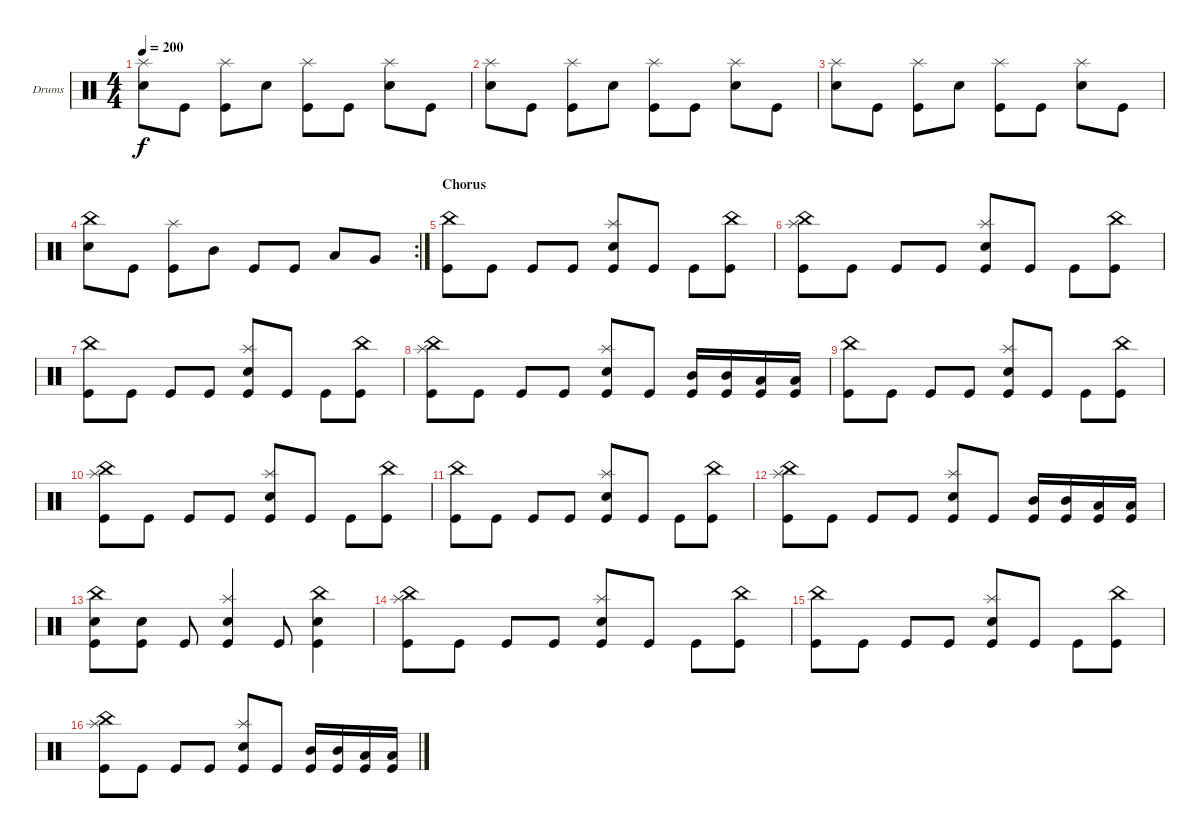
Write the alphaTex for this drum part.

\defaultSystemsLayout 4
\bracketExtendMode groupsimilarinstruments
\firstSystemTrackNameOrientation horizontal
\otherSystemsTrackNameOrientation horizontal
\track ("Drumkit" "Drums") {instrument percussion}
\staff {score}
\articulation defaults
\ts (4 4)
\tempo 200
\clef neutral
\ks c
("Snare (hit) 2" "Splash (hit)").8{dy f} "Kick (hit)".8 ("Kick (hit)" "Splash (hit)").8 "Snare (hit) 2".8 ("Kick (hit)" "Splash (hit)").8 "Kick (hit)".8 ("Snare (hit) 2" "Splash (hit)").8 "Kick (hit)".8 |
("Snare (hit) 2" "Splash (hit)").8 "Kick (hit)".8 ("Kick (hit)" "Splash (hit)").8 "Snare (hit) 2".8 ("Kick (hit)" "Splash (hit)").8 "Kick (hit)".8 ("Snare (hit) 2" "Splash (hit)").8 "Kick (hit)".8 |
("Snare (hit) 2" "Splash (hit)").8 "Kick (hit)".8 ("Kick (hit)" "Splash (hit)").8 "Snare (hit) 2".8 ("Kick (hit)" "Splash (hit)").8 "Kick (hit)".8 ("Snare (hit) 2" "Splash (hit)").8 "Kick (hit)".8 |
\rc 2
("Snare (hit) 2" "China (hit)").8 "Kick (hit)".8 ("Splash (hit)" "Kick (hit)").8 "Mid Tom (hit)".8 "Kick (hit)".8 "Kick (hit)".8 "Low Tom (hit)".8 "Very Low Tom (hit)".8 |
\section ("" "Chorus")
("Kick (hit)" "China (hit)").8 "Kick (hit)".8 "Kick (hit)".8 "Kick (hit)".8 ("Kick (hit)" "Splash (hit)" "Snare (hit) 2").8 "Kick (hit)".8 "Kick (hit)".8 ("Kick (hit)" "China (hit)").8 |
("Kick (hit)" "Splash (hit)" "China (hit)").8 "Kick (hit)".8 "Kick (hit)".8 "Kick (hit)".8 ("Kick (hit)" "Splash (hit)" "Snare (hit) 2").8 "Kick (hit)".8 "Kick (hit)".8 ("Kick (hit)" "China (hit)").8 |
("Kick (hit)" "China (hit)").8 "Kick (hit)".8 "Kick (hit)".8 "Kick (hit)".8 ("Kick (hit)" "Splash (hit)" "Snare (hit) 2").8 "Kick (hit)".8 "Kick (hit)".8 ("Kick (hit)" "China (hit)").8 |
("Kick (hit)" "Splash (hit)" "China (hit)").8 "Kick (hit)".8 "Kick (hit)".8 "Kick (hit)".8 ("Kick (hit)" "Splash (hit)" "Snare (hit) 2").8 "Kick (hit)".8 ("Kick (hit)" "Mid Tom (hit)").16 ("Kick (hit)" "Mid Tom (hit)").16 ("Low Tom (hit)" "Kick (hit)").16 ("Low Tom (hit)" "Kick (hit)").16 |
("Kick (hit)" "China (hit)").8 "Kick (hit)".8 "Kick (hit)".8 "Kick (hit)".8 ("Kick (hit)" "Splash (hit)" "Snare (hit) 2").8 "Kick (hit)".8 "Kick (hit)".8 ("Kick (hit)" "China (hit)").8 |
("Kick (hit)" "Splash (hit)" "China (hit)").8 "Kick (hit)".8 "Kick (hit)".8 "Kick (hit)".8 ("Kick (hit)" "Splash (hit)" "Snare (hit) 2").8 "Kick (hit)".8 "Kick (hit)".8 ("Kick (hit)" "China (hit)").8 |
("Kick (hit)" "China (hit)").8 "Kick (hit)".8 "Kick (hit)".8 "Kick (hit)".8 ("Kick (hit)" "Splash (hit)" "Snare (hit) 2").8 "Kick (hit)".8 "Kick (hit)".8 ("Kick (hit)" "China (hit)").8 |
("Kick (hit)" "Splash (hit)" "China (hit)").8 "Kick (hit)".8 "Kick (hit)".8 "Kick (hit)".8 ("Kick (hit)" "Splash (hit)" "Snare (hit) 2").8 "Kick (hit)".8 ("Kick (hit)" "Mid Tom (hit)").16 ("Kick (hit)" "Mid Tom (hit)").16 ("Low Tom (hit)" "Kick (hit)").16 ("Low Tom (hit)" "Kick (hit)").16 |
("Kick (hit)" "China (hit)" "Snare (hit) 2").8 ("Kick (hit)" "Snare (hit) 2").8 "Kick (hit)".8 ("Kick (hit)" "Splash (hit)" "Snare (hit) 2").4 "Kick (hit)".8 ("Kick (hit)" "China (hit)" "Snare (hit) 2").4 |
("Kick (hit)" "Splash (hit)" "China (hit)").8 "Kick (hit)".8 "Kick (hit)".8 "Kick (hit)".8 ("Kick (hit)" "Splash (hit)" "Snare (hit) 2").8 "Kick (hit)".8 "Kick (hit)".8 ("Kick (hit)" "China (hit)").8 |
("Kick (hit)" "China (hit)").8 "Kick (hit)".8 "Kick (hit)".8 "Kick (hit)".8 ("Kick (hit)" "Splash (hit)" "Snare (hit) 2").8 "Kick (hit)".8 "Kick (hit)".8 ("Kick (hit)" "China (hit)").8 |
("Kick (hit)" "Splash (hit)" "China (hit)").8 "Kick (hit)".8 "Kick (hit)".8 "Kick (hit)".8 ("Kick (hit)" "Splash (hit)" "Snare (hit) 2").8 "Kick (hit)".8 ("Kick (hit)" "Mid Tom (hit)").16 ("Kick (hit)" "Mid Tom (hit)").16 ("Low Tom (hit)" "Kick (hit)").16 ("Low Tom (hit)" "Kick (hit)").16
